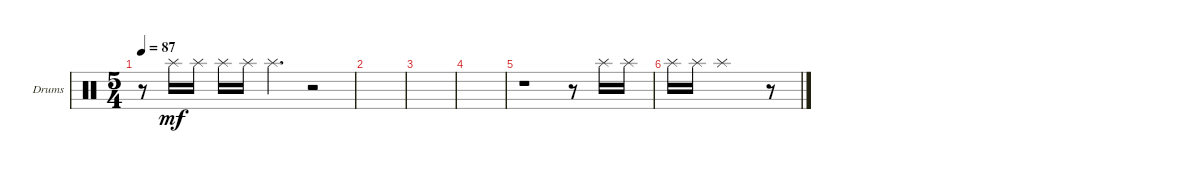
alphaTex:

\defaultSystemsLayout 4
\bracketExtendMode groupsimilarinstruments
\firstSystemTrackNameOrientation horizontal
\otherSystemsTrackNameOrientation horizontal
\track ("Drumkit" "Drums") {instrument percussion}
\staff {score}
\articulation defaults
\ts (5 4)
\tempo 87
\clef neutral
\scale
0.474178
\ks c
r.8{dy mf} "Splash (hit)".16 "Splash (hit)".16 "Splash (hit)".16 "Splash (hit)".16 "Splash (hit)".4{d} r.2 |
\scale
0.262911 |
\scale
0.262911 |
\scale
0.333333 |
\scale
0.333333 r.1 r.8 "Splash (hit)".16 "Splash (hit)".16 |
\scale
0.333333 "Splash (hit)".16 "Splash (hit)".16 "Splash (hit)".1 r.8 |
\scale
0.333333 |
\scale
0.333333 |
\scale
0.333333 |
\scale
0.333333 |
\scale
0.333333 |
\scale
0.333333 |
\scale
0.333333 |
\scale
0.333333 |
\scale
0.333333
